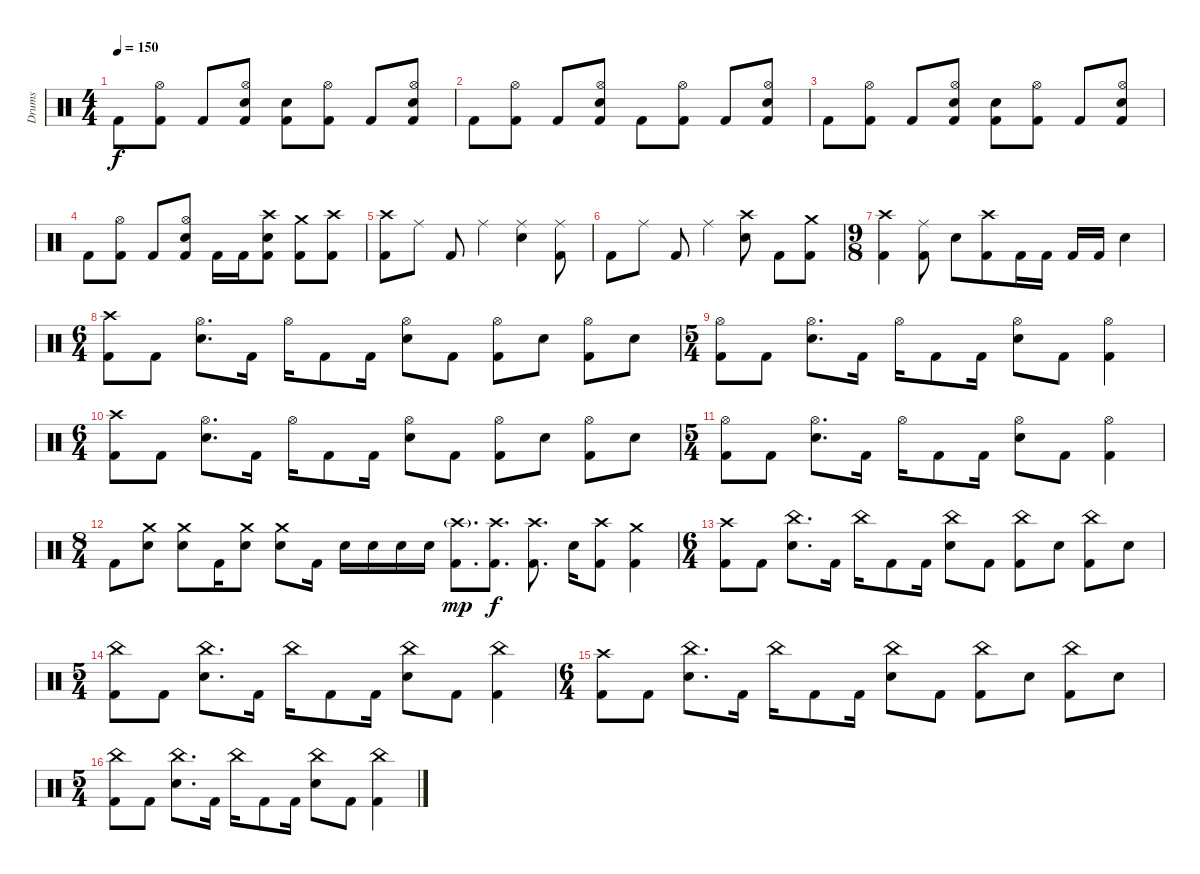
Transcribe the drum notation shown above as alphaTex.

\track ("Drums" "Drums") {instrument percussion}
\staff {score}
\articulation defaults
\ts (4 4)
\tempo 150
\clef neutral
\ks c "Kick (hit) 2".8{dy f}
("Hi-Hat (open)" "Kick (hit) 2").8 "Kick (hit) 2".8 ("Hi-Hat (open)" "Electric Snare (hit)" "Kick (hit) 2").8 ("Electric Snare (hit)" "Kick (hit) 2").8 ("Hi-Hat (open)" "Kick (hit) 2").8 "Kick (hit) 2".8 ("Hi-Hat (open)" "Electric Snare (hit)" "Kick (hit) 2").8 |
"Kick (hit) 2".8 ("Hi-Hat (open)" "Kick (hit) 2").8 "Kick (hit) 2".8 ("Hi-Hat (open)" "Electric Snare (hit)" "Kick (hit) 2").8 "Kick (hit) 2".8 ("Hi-Hat (open)" "Kick (hit) 2").8 "Kick (hit) 2".8 ("Hi-Hat (open)" "Electric Snare (hit)" "Kick (hit) 2").8 |
"Kick (hit) 2".8 ("Hi-Hat (open)" "Kick (hit) 2").8 "Kick (hit) 2".8 ("Hi-Hat (open)" "Electric Snare (hit)" "Kick (hit) 2").8 ("Electric Snare (hit)" "Kick (hit) 2").8 ("Hi-Hat (open)" "Kick (hit) 2").8 "Kick (hit) 2".8 ("Hi-Hat (open)" "Electric Snare (hit)" "Kick (hit) 2").8 |
"Kick (hit) 2".8 ("Hi-Hat (open)" "Kick (hit) 2").8 "Kick (hit) 2".8 ("Hi-Hat (open)" "Electric Snare (hit)" "Kick (hit) 2").8 "Kick (hit) 2".16 "Kick (hit) 2".16 ("Crash high (hit)" "Electric Snare (hit)" "Kick (hit) 2").8 ("Crash medium (hit)" "Kick (hit) 2").8 ("Crash high (hit)" "Kick (hit) 2").8 |
("Crash high (hit)" "Kick (hit) 2").8 "Ride (middle)".8 "Kick (hit) 2".8 "Ride (middle)".4 ("Ride (middle)" "Electric Snare (hit)").4 ("Ride (middle)" "Kick (hit) 2").8 |
"Kick (hit) 2".8 "Ride (middle)".8 "Kick (hit) 2".8 "Ride (middle)".4 ("Crash high (hit)" "Electric Snare (hit)").8 "Kick (hit) 2".8 ("Crash medium (hit)" "Kick (hit) 2").8 |
\ts (9 8)
("Crash high (hit)" "Kick (hit) 2").4 ("Ride (middle)" "Kick (hit) 2").8 "Electric Snare (hit)".8 ("Crash high (hit)" "Kick (hit) 2").8 "Kick (hit) 2".16 "Kick (hit) 2".16 "Kick (hit) 2".16 "Kick (hit) 2".16 "Electric Snare (hit)".4 |
\ts (6 4)
("Crash high (hit)" "Kick (hit) 2").8 "Kick (hit) 2".8 ("Hi-Hat (open)" "Electric Snare (hit)").8{d} "Kick (hit) 2".16 "Hi-Hat (open)".16 "Kick (hit) 2".8 "Kick (hit) 2".16 ("Hi-Hat (open)" "Electric Snare (hit)").8 "Kick (hit) 2".8 ("Hi-Hat (open)" "Kick (hit) 2").8 "Electric Snare (hit)".8 ("Hi-Hat (open)" "Kick (hit) 2").8 "Electric Snare (hit)".8 |
\ts (5 4)
("Hi-Hat (open)" "Kick (hit) 2").8 "Kick (hit) 2".8 ("Hi-Hat (open)" "Electric Snare (hit)").8{d} "Kick (hit) 2".16 "Hi-Hat (open)".16 "Kick (hit) 2".8 "Kick (hit) 2".16 ("Hi-Hat (open)" "Electric Snare (hit)").8 "Kick (hit) 2".8 ("Hi-Hat (open)" "Kick (hit) 2").4 |
\ts (6 4)
("Crash high (hit)" "Kick (hit) 2").8 "Kick (hit) 2".8 ("Hi-Hat (open)" "Electric Snare (hit)").8{d} "Kick (hit) 2".16 "Hi-Hat (open)".16 "Kick (hit) 2".8 "Kick (hit) 2".16 ("Hi-Hat (open)" "Electric Snare (hit)").8 "Kick (hit) 2".8 ("Hi-Hat (open)" "Kick (hit) 2").8 "Electric Snare (hit)".8 ("Hi-Hat (open)" "Kick (hit) 2").8 "Electric Snare (hit)".8 |
\ts (5 4)
("Hi-Hat (open)" "Kick (hit) 2").8 "Kick (hit) 2".8 ("Hi-Hat (open)" "Electric Snare (hit)").8{d} "Kick (hit) 2".16 "Hi-Hat (open)".16 "Kick (hit) 2".8 "Kick (hit) 2".16 ("Hi-Hat (open)" "Electric Snare (hit)").8 "Kick (hit) 2".8 ("Hi-Hat (open)" "Kick (hit) 2").4 |
\ts (8 4)
"Kick (hit) 2".8 ("Crash medium (hit)" "Electric Snare (hit)").8 ("Crash medium (hit)" "Electric Snare (hit)").8 "Kick (hit) 2".16 ("Crash medium (hit)" "Electric Snare (hit)").8 ("Crash medium (hit)" "Electric Snare (hit)").8 "Kick (hit) 2".16 "Electric Snare (hit)".16 "Electric Snare (hit)".16 "Electric Snare (hit)".16 "Electric Snare (hit)".16 ("Crash high (hit)"{g} "Kick (hit) 2").8{d dy mp} ("Crash high (hit)" "Kick (hit) 2").8{d dy f} ("Crash high (hit)" "Kick (hit) 2").8{d} "Electric Snare (hit)".16 ("Crash high (hit)" "Kick (hit) 2").8 ("Crash medium (hit)" "Kick (hit) 2").4 |
\ts (6 4)
("Crash high (hit)" "Kick (hit) 2").8 "Kick (hit) 2".8 ("China (hit)" "Electric Snare (hit)").8{d} "Kick (hit) 2".16 "China (hit)".16 "Kick (hit) 2".8 "Kick (hit) 2".16 ("China (hit)" "Electric Snare (hit)").8 "Kick (hit) 2".8 ("China (hit)" "Kick (hit) 2").8 "Electric Snare (hit)".8 ("China (hit)" "Kick (hit) 2").8 "Electric Snare (hit)".8 |
\ts (5 4)
("China (hit)" "Kick (hit) 2").8 "Kick (hit) 2".8 ("China (hit)" "Electric Snare (hit)").8{d} "Kick (hit) 2".16 "China (hit)".16 "Kick (hit) 2".8 "Kick (hit) 2".16 ("China (hit)" "Electric Snare (hit)").8 "Kick (hit) 2".8 ("China (hit)" "Kick (hit) 2").4 |
\ts (6 4)
("Crash high (hit)" "Kick (hit) 2").8 "Kick (hit) 2".8 ("China (hit)" "Electric Snare (hit)").8{d} "Kick (hit) 2".16 "China (hit)".16 "Kick (hit) 2".8 "Kick (hit) 2".16 ("China (hit)" "Electric Snare (hit)").8 "Kick (hit) 2".8 ("China (hit)" "Kick (hit) 2").8 "Electric Snare (hit)".8 ("China (hit)" "Kick (hit) 2").8 "Electric Snare (hit)".8 |
\ts (5 4)
("China (hit)" "Kick (hit) 2").8 "Kick (hit) 2".8 ("China (hit)" "Electric Snare (hit)").8{d} "Kick (hit) 2".16 "China (hit)".16 "Kick (hit) 2".8 "Kick (hit) 2".16 ("China (hit)" "Electric Snare (hit)").8 "Kick (hit) 2".8 ("China (hit)" "Kick (hit) 2").4
